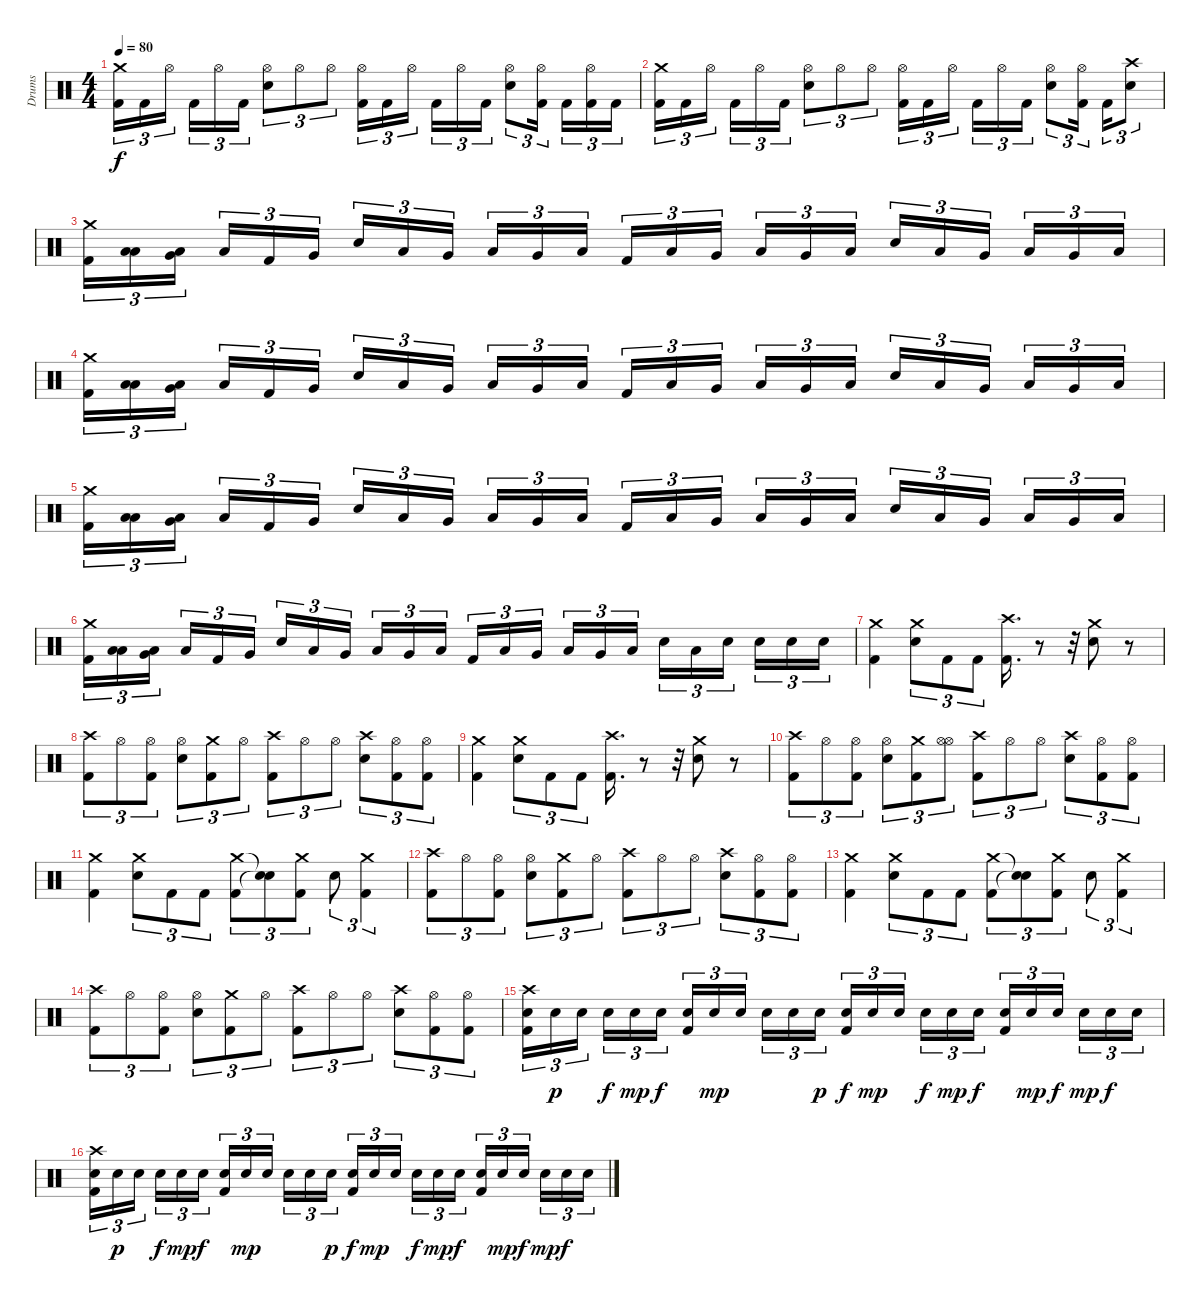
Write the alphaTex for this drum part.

\track ("Drums" "Drums") {instrument percussion}
\staff {score}
\articulation defaults
\ts (4 4)
\tempo 80
\clef neutral
\ks c
("Kick (hit) 2" "Crash medium (hit)").16{tu (3 2) dy f} "Kick (hit) 2".16{tu (3 2)} "Hi-Hat (open)".16{tu (3 2)} "Kick (hit) 2".16{tu (3 2)} "Hi-Hat (open)".16{tu (3 2)} "Kick (hit) 2".16{tu (3 2)} ("Hi-Hat (open)" "Electric Snare (hit)").8{tu (3 2)} "Hi-Hat (open)".8{tu (3 2)} "Hi-Hat (open)".8{tu (3 2)} ("Hi-Hat (open)" "Kick (hit) 2").16{tu (3 2)} "Kick (hit) 2".16{tu (3 2)} "Hi-Hat (open)".16{tu (3 2)} "Kick (hit) 2".16{tu (3 2)} "Hi-Hat (open)".16{tu (3 2)} "Kick (hit) 2".16{tu (3 2)} ("Hi-Hat (open)" "Electric Snare (hit)").8{tu (3 2)} ("Hi-Hat (open)" "Kick (hit) 2").16{tu (3 2)} "Kick (hit) 2".16{tu (3 2)} ("Hi-Hat (open)" "Kick (hit) 2").16{tu (3 2)} "Kick (hit) 2".16{tu (3 2)} |
("Kick (hit) 2" "Crash medium (hit)").16{tu (3 2)} "Kick (hit) 2".16{tu (3 2)} "Hi-Hat (open)".16{tu (3 2)} "Kick (hit) 2".16{tu (3 2)} "Hi-Hat (open)".16{tu (3 2)} "Kick (hit) 2".16{tu (3 2)} ("Hi-Hat (open)" "Electric Snare (hit)").8{tu (3 2)} "Hi-Hat (open)".8{tu (3 2)} "Hi-Hat (open)".8{tu (3 2)} ("Hi-Hat (open)" "Kick (hit) 2").16{tu (3 2)} "Kick (hit) 2".16{tu (3 2)} "Hi-Hat (open)".16{tu (3 2)} "Kick (hit) 2".16{tu (3 2)} "Hi-Hat (open)".16{tu (3 2)} "Kick (hit) 2".16{tu (3 2)} ("Hi-Hat (open)" "Electric Snare (hit)").8{tu (3 2)} ("Hi-Hat (open)" "Kick (hit) 2").16{tu (3 2)} "Kick (hit) 2".16{tu (3 2)} ("Crash high (hit)" "Electric Snare (hit)").8{tu (3 2)} |
("Kick (hit) 2" "Crash medium (hit)").16{tu (3 2)} ("Low Floor Tom (hit)" "Low Tom (hit)").16{tu (3 2)} ("Low Floor Tom (hit)" "Very Low Tom (hit)").16{tu (3 2)} "Low Floor Tom (hit)".16{tu (3 2)} "Kick (hit) 2".16{tu (3 2)} "Very Low Tom (hit)".16{tu (3 2)} "Electric Snare (hit)".16{tu (3 2)} "Low Tom (hit)".16{tu (3 2)} "Very Low Tom (hit)".16{tu (3 2)} "Low Tom (hit)".16{tu (3 2)} "Very Low Tom (hit)".16{tu (3 2)} "Low Floor Tom (hit)".16{tu (3 2)} "Kick (hit) 2".16{tu (3 2)} "Low Floor Tom (hit)".16{tu (3 2)} "Very Low Tom (hit)".16{tu (3 2)} "Low Tom (hit)".16{tu (3 2)} "Very Low Tom (hit)".16{tu (3 2)} "Low Tom (hit)".16{tu (3 2)} "Electric Snare (hit)".16{tu (3 2)} "Low Tom (hit)".16{tu (3 2)} "Very Low Tom (hit)".16{tu (3 2)} "Low Tom (hit)".16{tu (3 2)} "Very Low Tom (hit)".16{tu (3 2)} "Low Floor Tom (hit)".16{tu (3 2)} |
("Kick (hit) 2" "Crash medium (hit)").16{tu (3 2)} ("Low Floor Tom (hit)" "Low Tom (hit)").16{tu (3 2)} ("Low Floor Tom (hit)" "Very Low Tom (hit)").16{tu (3 2)} "Low Floor Tom (hit)".16{tu (3 2)} "Kick (hit) 2".16{tu (3 2)} "Very Low Tom (hit)".16{tu (3 2)} "Electric Snare (hit)".16{tu (3 2)} "Low Tom (hit)".16{tu (3 2)} "Very Low Tom (hit)".16{tu (3 2)} "Low Tom (hit)".16{tu (3 2)} "Very Low Tom (hit)".16{tu (3 2)} "Low Floor Tom (hit)".16{tu (3 2)} "Kick (hit) 2".16{tu (3 2)} "Low Floor Tom (hit)".16{tu (3 2)} "Very Low Tom (hit)".16{tu (3 2)} "Low Tom (hit)".16{tu (3 2)} "Very Low Tom (hit)".16{tu (3 2)} "Low Tom (hit)".16{tu (3 2)} "Electric Snare (hit)".16{tu (3 2)} "Low Tom (hit)".16{tu (3 2)} "Very Low Tom (hit)".16{tu (3 2)} "Low Tom (hit)".16{tu (3 2)} "Very Low Tom (hit)".16{tu (3 2)} "Low Floor Tom (hit)".16{tu (3 2)} |
("Kick (hit) 2" "Crash medium (hit)").16{tu (3 2)} ("Low Floor Tom (hit)" "Low Tom (hit)").16{tu (3 2)} ("Low Floor Tom (hit)" "Very Low Tom (hit)").16{tu (3 2)} "Low Floor Tom (hit)".16{tu (3 2)} "Kick (hit) 2".16{tu (3 2)} "Very Low Tom (hit)".16{tu (3 2)} "Electric Snare (hit)".16{tu (3 2)} "Low Tom (hit)".16{tu (3 2)} "Very Low Tom (hit)".16{tu (3 2)} "Low Tom (hit)".16{tu (3 2)} "Very Low Tom (hit)".16{tu (3 2)} "Low Floor Tom (hit)".16{tu (3 2)} "Kick (hit) 2".16{tu (3 2)} "Low Floor Tom (hit)".16{tu (3 2)} "Very Low Tom (hit)".16{tu (3 2)} "Low Tom (hit)".16{tu (3 2)} "Very Low Tom (hit)".16{tu (3 2)} "Low Tom (hit)".16{tu (3 2)} "Electric Snare (hit)".16{tu (3 2)} "Low Tom (hit)".16{tu (3 2)} "Very Low Tom (hit)".16{tu (3 2)} "Low Tom (hit)".16{tu (3 2)} "Very Low Tom (hit)".16{tu (3 2)} "Low Floor Tom (hit)".16{tu (3 2)} |
("Kick (hit) 2" "Crash medium (hit)").16{tu (3 2)} ("Low Floor Tom (hit)" "Low Tom (hit)").16{tu (3 2)} ("Low Floor Tom (hit)" "Very Low Tom (hit)").16{tu (3 2)} "Low Floor Tom (hit)".16{tu (3 2)} "Kick (hit) 2".16{tu (3 2)} "Very Low Tom (hit)".16{tu (3 2)} "Electric Snare (hit)".16{tu (3 2)} "Low Tom (hit)".16{tu (3 2)} "Very Low Tom (hit)".16{tu (3 2)} "Low Tom (hit)".16{tu (3 2)} "Very Low Tom (hit)".16{tu (3 2)} "Low Floor Tom (hit)".16{tu (3 2)} "Kick (hit) 2".16{tu (3 2)} "Low Floor Tom (hit)".16{tu (3 2)} "Very Low Tom (hit)".16{tu (3 2)} "Low Tom (hit)".16{tu (3 2)} "Very Low Tom (hit)".16{tu (3 2)} "Low Tom (hit)".16{tu (3 2)} "Electric Snare (hit)".16{tu (3 2)} "Low Tom (hit)".16{tu (3 2)} "Electric Snare (hit)".16{tu (3 2)} "Electric Snare (hit)".16{tu (3 2)} "Electric Snare (hit)".16{tu (3 2)} "Electric Snare (hit)".16{tu (3 2)} |
("Kick (hit) 2" "Crash medium (hit)").4 ("Electric Snare (hit)" "Crash medium (hit)").8{tu (3 2)} "Kick (hit) 2".8{tu (3 2)} "Kick (hit) 2".8{tu (3 2)} ("Crash high (hit)" "Kick (hit) 2").16{d} r.8 r.32 ("Electric Snare (hit)" "Crash medium (hit)").8 r.8 |
("Kick (hit) 2" "Crash high (hit)").8{tu (3 2)} "Hi-Hat (open)".8{tu (3 2)} ("Kick (hit) 2" "Hi-Hat (open)").8{tu (3 2)} ("Electric Snare (hit)" "Hi-Hat (open)").8{tu (3 2)} ("Kick (hit) 2" "Crash medium (hit)").8{tu (3 2)} "Hi-Hat (open)".8{tu (3 2)} ("Kick (hit) 2" "Crash high (hit)").8{tu (3 2)} "Hi-Hat (open)".8{tu (3 2)} "Hi-Hat (open)".8{tu (3 2)} ("Electric Snare (hit)" "Crash high (hit)").8{tu (3 2)} ("Kick (hit) 2" "Hi-Hat (open)").8{tu (3 2)} ("Kick (hit) 2" "Hi-Hat (open)").8{tu (3 2)} |
("Kick (hit) 2" "Crash medium (hit)").4 ("Electric Snare (hit)" "Crash medium (hit)").8{tu (3 2)} "Kick (hit) 2".8{tu (3 2)} "Kick (hit) 2".8{tu (3 2)} ("Crash high (hit)" "Kick (hit) 2").16{d} r.8 r.32 ("Electric Snare (hit)" "Crash medium (hit)").8 r.8 |
("Kick (hit) 2" "Crash high (hit)").8{tu (3 2)} "Hi-Hat (open)".8{tu (3 2)} ("Kick (hit) 2" "Hi-Hat (open)").8{tu (3 2)} ("Hi-Hat (open)" "Electric Snare (hit)").8{tu (3 2)} ("Kick (hit) 2" "Crash medium (hit)").8{tu (3 2)} ("Hi-Hat (open)" "Hi-Hat (open)").8{tu (3 2)} ("Kick (hit) 2" "Crash high (hit)").8{tu (3 2)} "Hi-Hat (open)".8{tu (3 2)} "Hi-Hat (open)".8{tu (3 2)} ("Electric Snare (hit)" "Crash high (hit)").8{tu (3 2)} ("Kick (hit) 2" "Hi-Hat (open)").8{tu (3 2)} ("Kick (hit) 2" "Hi-Hat (open)").8{tu (3 2)} |
("Kick (hit) 2" "Crash medium (hit)").4 ("Electric Snare (hit)" "Crash medium (hit)").8{tu (3 2)} "Kick (hit) 2".8{tu (3 2)} "Kick (hit) 2".8{tu (3 2)} ("Crash medium (hit)" "Kick (hit) 2").8{tu (3 2)} ("Snare (hit)"{t} "Snare (hit)"{t}).8{tu (3 2)} ("Crash medium (hit)" "Kick (hit) 2").8{tu (3 2)} "Electric Snare (hit)".8{tu (3 2)} ("Crash medium (hit)" "Kick (hit) 2").4{tu (3 2)} |
("Kick (hit) 2" "Crash high (hit)").8{tu (3 2)} "Hi-Hat (open)".8{tu (3 2)} ("Kick (hit) 2" "Hi-Hat (open)").8{tu (3 2)} ("Electric Snare (hit)" "Hi-Hat (open)").8{tu (3 2)} ("Kick (hit) 2" "Crash medium (hit)").8{tu (3 2)} "Hi-Hat (open)".8{tu (3 2)} ("Kick (hit) 2" "Crash high (hit)").8{tu (3 2)} "Hi-Hat (open)".8{tu (3 2)} "Hi-Hat (open)".8{tu (3 2)} ("Electric Snare (hit)" "Crash high (hit)").8{tu (3 2)} ("Kick (hit) 2" "Hi-Hat (open)").8{tu (3 2)} ("Kick (hit) 2" "Hi-Hat (open)").8{tu (3 2)} |
("Kick (hit) 2" "Crash medium (hit)").4 ("Electric Snare (hit)" "Crash medium (hit)").8{tu (3 2)} "Kick (hit) 2".8{tu (3 2)} "Kick (hit) 2".8{tu (3 2)} ("Crash medium (hit)" "Kick (hit) 2").8{tu (3 2)} ("Snare (hit)"{t} "Snare (hit)"{t}).8{tu (3 2)} ("Crash medium (hit)" "Kick (hit) 2").8{tu (3 2)} "Electric Snare (hit)".8{tu (3 2)} ("Crash medium (hit)" "Kick (hit) 2").4{tu (3 2)} |
("Kick (hit) 2" "Crash high (hit)").8{tu (3 2)} "Hi-Hat (open)".8{tu (3 2)} ("Kick (hit) 2" "Hi-Hat (open)").8{tu (3 2)} ("Electric Snare (hit)" "Hi-Hat (open)").8{tu (3 2)} ("Kick (hit) 2" "Crash medium (hit)").8{tu (3 2)} "Hi-Hat (open)".8{tu (3 2)} ("Kick (hit) 2" "Crash high (hit)").8{tu (3 2)} "Hi-Hat (open)".8{tu (3 2)} "Hi-Hat (open)".8{tu (3 2)} ("Electric Snare (hit)" "Crash high (hit)").8{tu (3 2)} ("Kick (hit) 2" "Hi-Hat (open)").8{tu (3 2)} ("Kick (hit) 2" "Hi-Hat (open)").8{tu (3 2)} |
("Crash high (hit)" "Electric Snare (hit)" "Kick (hit) 2").16{tu (3 2)} "Electric Snare (hit)".16{tu (3 2) dy p} "Electric Snare (hit)".16{tu (3 2)} "Electric Snare (hit)".16{tu (3 2) dy f} "Electric Snare (hit)".16{tu (3 2) dy mp} "Electric Snare (hit)".16{tu (3 2) dy f} ("Electric Snare (hit)" "Kick (hit) 2").16{tu (3 2)} "Electric Snare (hit)".16{tu (3 2) dy mp} "Electric Snare (hit)".16{tu (3 2)} "Electric Snare (hit)".16{tu (3 2)} "Electric Snare (hit)".16{tu (3 2)} "Electric Snare (hit)".16{tu (3 2) dy p} ("Electric Snare (hit)" "Kick (hit) 2").16{tu (3 2) dy f} "Electric Snare (hit)".16{tu (3 2) dy mp} "Electric Snare (hit)".16{tu (3 2)} "Electric Snare (hit)".16{tu (3 2) dy f} "Electric Snare (hit)".16{tu (3 2) dy mp} "Electric Snare (hit)".16{tu (3 2) dy f} ("Electric Snare (hit)" "Kick (hit) 2").16{tu (3 2)} "Electric Snare (hit)".16{tu (3 2) dy mp} "Electric Snare (hit)".16{tu (3 2) dy f} "Electric Snare (hit)".16{tu (3 2) dy mp} "Electric Snare (hit)".16{tu (3 2) dy f} "Electric Snare (hit)".16{tu (3 2)} |
("Crash high (hit)" "Electric Snare (hit)" "Kick (hit) 2").16{tu (3 2)} "Electric Snare (hit)".16{tu (3 2) dy p} "Electric Snare (hit)".16{tu (3 2)} "Electric Snare (hit)".16{tu (3 2) dy f} "Electric Snare (hit)".16{tu (3 2) dy mp} "Electric Snare (hit)".16{tu (3 2) dy f} ("Electric Snare (hit)" "Kick (hit) 2").16{tu (3 2)} "Electric Snare (hit)".16{tu (3 2) dy mp} "Electric Snare (hit)".16{tu (3 2)} "Electric Snare (hit)".16{tu (3 2)} "Electric Snare (hit)".16{tu (3 2)} "Electric Snare (hit)".16{tu (3 2) dy p} ("Electric Snare (hit)" "Kick (hit) 2").16{tu (3 2) dy f} "Electric Snare (hit)".16{tu (3 2) dy mp} "Electric Snare (hit)".16{tu (3 2)} "Electric Snare (hit)".16{tu (3 2) dy f} "Electric Snare (hit)".16{tu (3 2) dy mp} "Electric Snare (hit)".16{tu (3 2) dy f} ("Electric Snare (hit)" "Kick (hit) 2").16{tu (3 2)} "Electric Snare (hit)".16{tu (3 2) dy mp} "Electric Snare (hit)".16{tu (3 2) dy f} "Electric Snare (hit)".16{tu (3 2) dy mp} "Electric Snare (hit)".16{tu (3 2) dy f} "Electric Snare (hit)".16{tu (3 2)}
